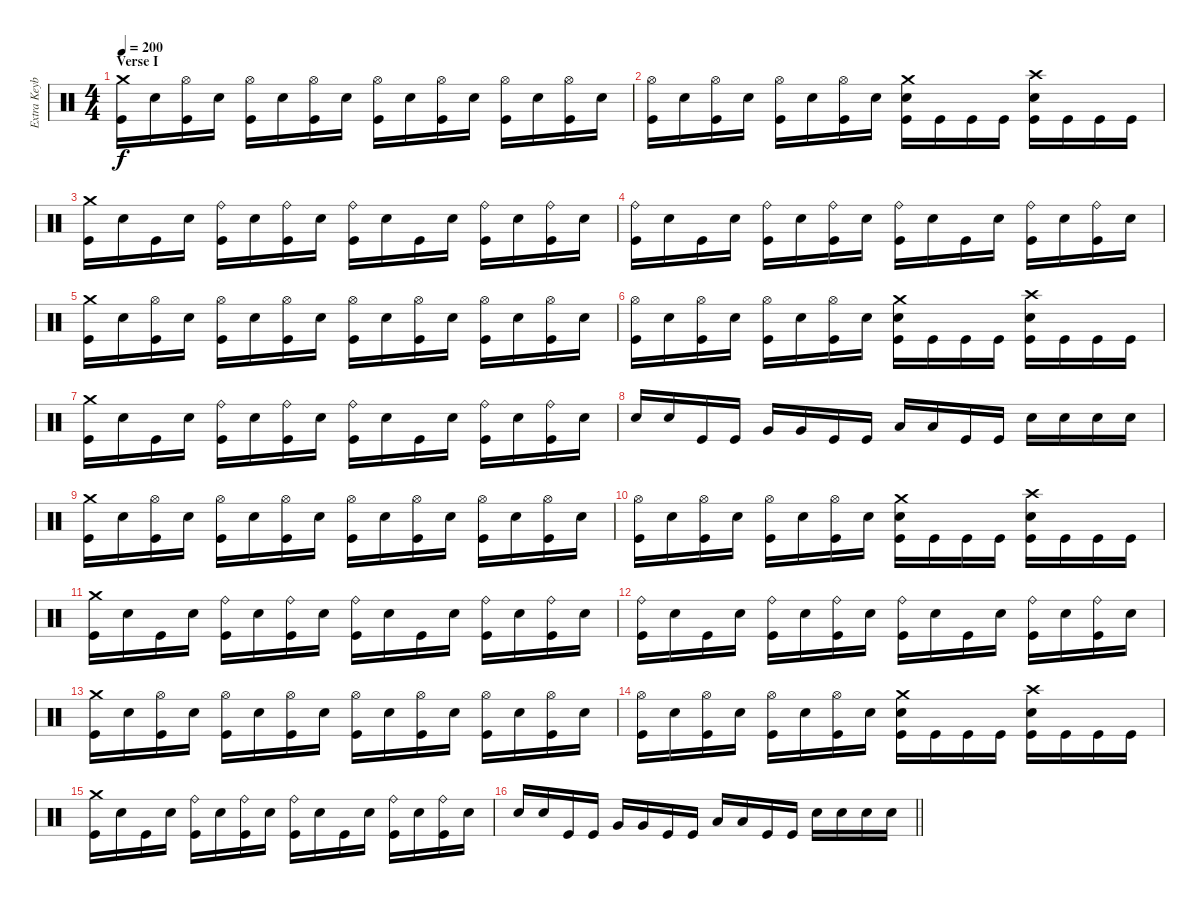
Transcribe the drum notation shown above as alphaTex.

\track ("Extra Keyboard" "Extra Keyb") {instrument percussion}
\staff {score}
\articulation defaults
\ts (4 4)
\section ("" "Verse I")
\tempo 200
\clef neutral
\ks c
("Crash medium (hit)" "Kick (hit)").16{dy f} "Electric Snare (hit)".16 ("Hi-Hat (open)" "Kick (hit)").16 "Electric Snare (hit)".16 ("Hi-Hat (open)" "Kick (hit)").16 "Electric Snare (hit)".16 ("Hi-Hat (open)" "Kick (hit)").16 "Electric Snare (hit)".16 ("Hi-Hat (open)" "Kick (hit)").16 "Electric Snare (hit)".16 ("Hi-Hat (open)" "Kick (hit)").16 "Electric Snare (hit)".16 ("Hi-Hat (open)" "Kick (hit)").16 "Electric Snare (hit)".16 ("Hi-Hat (open)" "Kick (hit)").16 "Electric Snare (hit)".16 |
("Hi-Hat (open)" "Kick (hit)").16 "Electric Snare (hit)".16 ("Hi-Hat (open)" "Kick (hit)").16 "Electric Snare (hit)".16 ("Hi-Hat (open)" "Kick (hit)").16 "Electric Snare (hit)".16 ("Hi-Hat (open)" "Kick (hit)").16 "Electric Snare (hit)".16 ("Crash medium (hit)" "Electric Snare (hit)" "Kick (hit)").16 "Kick (hit)".16 "Kick (hit)".16 "Kick (hit)".16 ("Crash high (hit)" "Electric Snare (hit)" "Kick (hit)").16 "Kick (hit)".16 "Kick (hit)".16 "Kick (hit)".16 |
("Crash medium (hit)" "Kick (hit)").16 "Electric Snare (hit)".16 "Kick (hit)".16 "Electric Snare (hit)".16 ("Ride (bell)" "Kick (hit)").16 "Electric Snare (hit)".16 ("Ride (bell)" "Kick (hit)").16 "Electric Snare (hit)".16 ("Ride (bell)" "Kick (hit)").16 "Electric Snare (hit)".16 "Kick (hit)".16 "Electric Snare (hit)".16 ("Ride (bell)" "Kick (hit)").16 "Electric Snare (hit)".16 ("Ride (bell)" "Kick (hit)").16 "Electric Snare (hit)".16 |
("Ride (bell)" "Kick (hit)").16 "Electric Snare (hit)".16 "Kick (hit)".16 "Electric Snare (hit)".16 ("Ride (bell)" "Kick (hit)").16 "Electric Snare (hit)".16 ("Ride (bell)" "Kick (hit)").16 "Electric Snare (hit)".16 ("Ride (bell)" "Kick (hit)").16 "Electric Snare (hit)".16 "Kick (hit)".16 "Electric Snare (hit)".16 ("Ride (bell)" "Kick (hit)").16 "Electric Snare (hit)".16 ("Ride (bell)" "Kick (hit)").16 "Electric Snare (hit)".16 |
("Crash medium (hit)" "Kick (hit)").16 "Electric Snare (hit)".16 ("Hi-Hat (open)" "Kick (hit)").16 "Electric Snare (hit)".16 ("Hi-Hat (open)" "Kick (hit)").16 "Electric Snare (hit)".16 ("Hi-Hat (open)" "Kick (hit)").16 "Electric Snare (hit)".16 ("Hi-Hat (open)" "Kick (hit)").16 "Electric Snare (hit)".16 ("Hi-Hat (open)" "Kick (hit)").16 "Electric Snare (hit)".16 ("Hi-Hat (open)" "Kick (hit)").16 "Electric Snare (hit)".16 ("Hi-Hat (open)" "Kick (hit)").16 "Electric Snare (hit)".16 |
("Hi-Hat (open)" "Kick (hit)").16 "Electric Snare (hit)".16 ("Hi-Hat (open)" "Kick (hit)").16 "Electric Snare (hit)".16 ("Hi-Hat (open)" "Kick (hit)").16 "Electric Snare (hit)".16 ("Hi-Hat (open)" "Kick (hit)").16 "Electric Snare (hit)".16 ("Crash medium (hit)" "Electric Snare (hit)" "Kick (hit)").16 "Kick (hit)".16 "Kick (hit)".16 "Kick (hit)".16 ("Crash high (hit)" "Electric Snare (hit)" "Kick (hit)").16 "Kick (hit)".16 "Kick (hit)".16 "Kick (hit)".16 |
("Crash medium (hit)" "Kick (hit)").16 "Electric Snare (hit)".16 "Kick (hit)".16 "Electric Snare (hit)".16 ("Ride (bell)" "Kick (hit)").16 "Electric Snare (hit)".16 ("Ride (bell)" "Kick (hit)").16 "Electric Snare (hit)".16 ("Ride (bell)" "Kick (hit)").16 "Electric Snare (hit)".16 "Kick (hit)".16 "Electric Snare (hit)".16 ("Ride (bell)" "Kick (hit)").16 "Electric Snare (hit)".16 ("Ride (bell)" "Kick (hit)").16 "Electric Snare (hit)".16 |
"Electric Snare (hit)".16 "Electric Snare (hit)".16 "Kick (hit)".16 "Kick (hit)".16 "Very Low Tom (hit)".16 "Very Low Tom (hit)".16 "Kick (hit)".16 "Kick (hit)".16 "Low Floor Tom (hit)".16 "Low Floor Tom (hit)".16 "Kick (hit)".16 "Kick (hit)".16 "Electric Snare (hit)".16 "Electric Snare (hit)".16 "Electric Snare (hit)".16 "Electric Snare (hit)".16 |
("Crash medium (hit)" "Kick (hit)").16 "Electric Snare (hit)".16 ("Hi-Hat (open)" "Kick (hit)").16 "Electric Snare (hit)".16 ("Hi-Hat (open)" "Kick (hit)").16 "Electric Snare (hit)".16 ("Hi-Hat (open)" "Kick (hit)").16 "Electric Snare (hit)".16 ("Hi-Hat (open)" "Kick (hit)").16 "Electric Snare (hit)".16 ("Hi-Hat (open)" "Kick (hit)").16 "Electric Snare (hit)".16 ("Hi-Hat (open)" "Kick (hit)").16 "Electric Snare (hit)".16 ("Hi-Hat (open)" "Kick (hit)").16 "Electric Snare (hit)".16 |
("Hi-Hat (open)" "Kick (hit)").16 "Electric Snare (hit)".16 ("Hi-Hat (open)" "Kick (hit)").16 "Electric Snare (hit)".16 ("Hi-Hat (open)" "Kick (hit)").16 "Electric Snare (hit)".16 ("Hi-Hat (open)" "Kick (hit)").16 "Electric Snare (hit)".16 ("Crash medium (hit)" "Electric Snare (hit)" "Kick (hit)").16 "Kick (hit)".16 "Kick (hit)".16 "Kick (hit)".16 ("Crash high (hit)" "Electric Snare (hit)" "Kick (hit)").16 "Kick (hit)".16 "Kick (hit)".16 "Kick (hit)".16 |
("Crash medium (hit)" "Kick (hit)").16 "Electric Snare (hit)".16 "Kick (hit)".16 "Electric Snare (hit)".16 ("Ride (bell)" "Kick (hit)").16 "Electric Snare (hit)".16 ("Ride (bell)" "Kick (hit)").16 "Electric Snare (hit)".16 ("Ride (bell)" "Kick (hit)").16 "Electric Snare (hit)".16 "Kick (hit)".16 "Electric Snare (hit)".16 ("Ride (bell)" "Kick (hit)").16 "Electric Snare (hit)".16 ("Ride (bell)" "Kick (hit)").16 "Electric Snare (hit)".16 |
("Ride (bell)" "Kick (hit)").16 "Electric Snare (hit)".16 "Kick (hit)".16 "Electric Snare (hit)".16 ("Ride (bell)" "Kick (hit)").16 "Electric Snare (hit)".16 ("Ride (bell)" "Kick (hit)").16 "Electric Snare (hit)".16 ("Ride (bell)" "Kick (hit)").16 "Electric Snare (hit)".16 "Kick (hit)".16 "Electric Snare (hit)".16 ("Ride (bell)" "Kick (hit)").16 "Electric Snare (hit)".16 ("Ride (bell)" "Kick (hit)").16 "Electric Snare (hit)".16 |
("Crash medium (hit)" "Kick (hit)").16 "Electric Snare (hit)".16 ("Hi-Hat (open)" "Kick (hit)").16 "Electric Snare (hit)".16 ("Hi-Hat (open)" "Kick (hit)").16 "Electric Snare (hit)".16 ("Hi-Hat (open)" "Kick (hit)").16 "Electric Snare (hit)".16 ("Hi-Hat (open)" "Kick (hit)").16 "Electric Snare (hit)".16 ("Hi-Hat (open)" "Kick (hit)").16 "Electric Snare (hit)".16 ("Hi-Hat (open)" "Kick (hit)").16 "Electric Snare (hit)".16 ("Hi-Hat (open)" "Kick (hit)").16 "Electric Snare (hit)".16 |
("Hi-Hat (open)" "Kick (hit)").16 "Electric Snare (hit)".16 ("Hi-Hat (open)" "Kick (hit)").16 "Electric Snare (hit)".16 ("Hi-Hat (open)" "Kick (hit)").16 "Electric Snare (hit)".16 ("Hi-Hat (open)" "Kick (hit)").16 "Electric Snare (hit)".16 ("Crash medium (hit)" "Electric Snare (hit)" "Kick (hit)").16 "Kick (hit)".16 "Kick (hit)".16 "Kick (hit)".16 ("Crash high (hit)" "Electric Snare (hit)" "Kick (hit)").16 "Kick (hit)".16 "Kick (hit)".16 "Kick (hit)".16 |
("Crash medium (hit)" "Kick (hit)").16 "Electric Snare (hit)".16 "Kick (hit)".16 "Electric Snare (hit)".16 ("Ride (bell)" "Kick (hit)").16 "Electric Snare (hit)".16 ("Ride (bell)" "Kick (hit)").16 "Electric Snare (hit)".16 ("Ride (bell)" "Kick (hit)").16 "Electric Snare (hit)".16 "Kick (hit)".16 "Electric Snare (hit)".16 ("Ride (bell)" "Kick (hit)").16 "Electric Snare (hit)".16 ("Ride (bell)" "Kick (hit)").16 "Electric Snare (hit)".16 |
\barLineRight lightlight "Electric Snare (hit)".16 "Electric Snare (hit)".16 "Kick (hit)".16 "Kick (hit)".16 "Very Low Tom (hit)".16 "Very Low Tom (hit)".16 "Kick (hit)".16 "Kick (hit)".16 "Low Floor Tom (hit)".16 "Low Floor Tom (hit)".16 "Kick (hit)".16 "Kick (hit)".16 "Electric Snare (hit)".16 "Electric Snare (hit)".16 "Electric Snare (hit)".16 "Electric Snare (hit)".16
